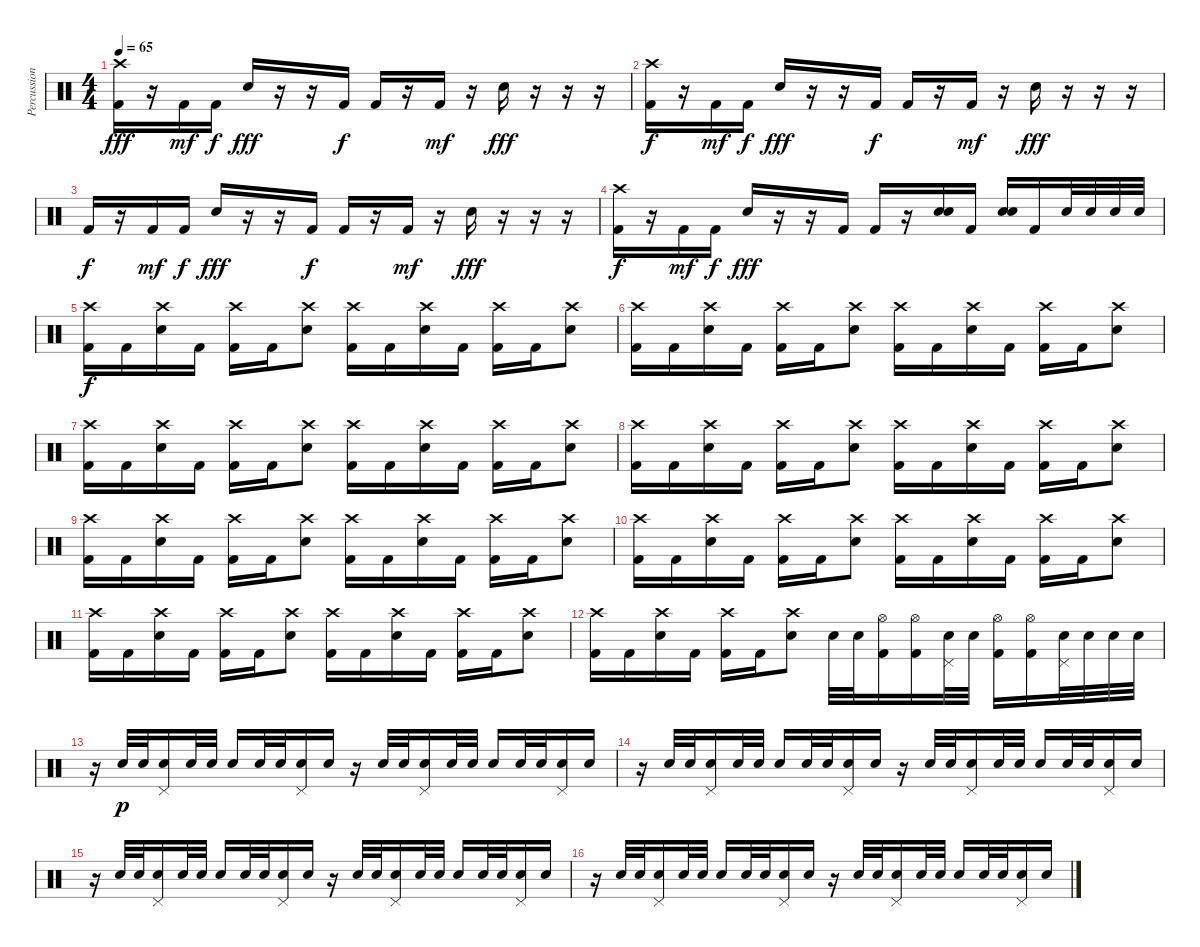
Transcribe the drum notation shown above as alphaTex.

\track ("Percussion" "Percussion") {instrument percussion}
\staff {score}
\articulation defaults
\ts (4 4)
\tempo 65
\clef neutral
\ks c
("Crash high (hit)" "Kick (hit) 2").16{dy fff} r.16 "Kick (hit) 2".16{dy mf} "Kick (hit) 2".16{dy f} "Snare (hit) 2".16{dy fff} r.16 r.16 "Kick (hit) 2".16{dy f} "Kick (hit) 2".16 r.16 "Kick (hit) 2".16{dy mf} r.16 "Snare (hit) 2".16{dy fff} r.16 r.16 r.16 |
("Crash high (hit)" "Kick (hit) 2").16{dy f} r.16 "Kick (hit) 2".16{dy mf} "Kick (hit) 2".16{dy f} "Snare (hit) 2".16{dy fff} r.16 r.16 "Kick (hit) 2".16{dy f} "Kick (hit) 2".16 r.16 "Kick (hit) 2".16{dy mf} r.16 "Snare (hit) 2".16{dy fff} r.16 r.16 r.16 |
"Kick (hit) 2".16{dy f} r.16 "Kick (hit) 2".16{dy mf} "Kick (hit) 2".16{dy f} "Snare (hit) 2".16{dy fff} r.16 r.16 "Kick (hit) 2".16{dy f} "Kick (hit) 2".16 r.16 "Kick (hit) 2".16{dy mf} r.16 "Snare (hit) 2".16{dy fff} r.16 r.16 r.16 |
("Crash high (hit)" "Kick (hit) 2").16{dy f} r.16 "Kick (hit) 2".16{dy mf} "Kick (hit) 2".16{dy f} "Snare (hit) 2".16{dy fff} r.16 r.16 "Kick (hit) 2".16 "Kick (hit) 2".16 r.16 ("Snare (hit) 2" "Snare (hit) 2").16{bd 240} "Kick (hit) 2".16 ("Snare (hit) 2" "Snare (hit) 2").16{bd 240} "Kick (hit) 2".16 "Snare (hit) 2".32 "Snare (hit) 2".32 "Snare (hit) 2".32 "Snare (hit) 2".32 |
("Crash high (hit)" "Kick (hit) 2").16{dy f volume 13} "Kick (hit) 2".16 ("Crash high (hit)" "Snare (hit) 2").16 "Kick (hit) 2".16 ("Crash high (hit)" "Kick (hit) 2").16 "Kick (hit) 2".16 ("Crash high (hit)" "Snare (hit) 2").8 ("Crash high (hit)" "Kick (hit) 2").16 "Kick (hit) 2".16 ("Crash high (hit)" "Snare (hit) 2").16 "Kick (hit) 2".16 ("Crash high (hit)" "Kick (hit) 2").16 "Kick (hit) 2".16 ("Crash high (hit)" "Snare (hit) 2").8 |
("Crash high (hit)" "Kick (hit) 2").16 "Kick (hit) 2".16 ("Crash high (hit)" "Snare (hit) 2").16 "Kick (hit) 2".16 ("Crash high (hit)" "Kick (hit) 2").16 "Kick (hit) 2".16 ("Crash high (hit)" "Snare (hit) 2").8 ("Crash high (hit)" "Kick (hit) 2").16 "Kick (hit) 2".16 ("Crash high (hit)" "Snare (hit) 2").16 "Kick (hit) 2".16 ("Crash high (hit)" "Kick (hit) 2").16 "Kick (hit) 2".16 ("Crash high (hit)" "Snare (hit) 2").8 |
("Crash high (hit)" "Kick (hit) 2").16 "Kick (hit) 2".16 ("Crash high (hit)" "Snare (hit) 2").16 "Kick (hit) 2".16 ("Crash high (hit)" "Kick (hit) 2").16 "Kick (hit) 2".16 ("Crash high (hit)" "Snare (hit) 2").8 ("Crash high (hit)" "Kick (hit) 2").16 "Kick (hit) 2".16 ("Crash high (hit)" "Snare (hit) 2").16 "Kick (hit) 2".16 ("Crash high (hit)" "Kick (hit) 2").16 "Kick (hit) 2".16 ("Crash high (hit)" "Snare (hit) 2").8 |
("Crash high (hit)" "Kick (hit) 2").16 "Kick (hit) 2".16 ("Crash high (hit)" "Snare (hit) 2").16 "Kick (hit) 2".16 ("Crash high (hit)" "Kick (hit) 2").16 "Kick (hit) 2".16 ("Crash high (hit)" "Snare (hit) 2").8 ("Crash high (hit)" "Kick (hit) 2").16 "Kick (hit) 2".16 ("Crash high (hit)" "Snare (hit) 2").16 "Kick (hit) 2".16 ("Crash high (hit)" "Kick (hit) 2").16 "Kick (hit) 2".16 ("Crash high (hit)" "Snare (hit) 2").8 |
("Crash high (hit)" "Kick (hit) 2").16 "Kick (hit) 2".16 ("Crash high (hit)" "Snare (hit) 2").16 "Kick (hit) 2".16 ("Crash high (hit)" "Kick (hit) 2").16 "Kick (hit) 2".16 ("Crash high (hit)" "Snare (hit) 2").8 ("Crash high (hit)" "Kick (hit) 2").16 "Kick (hit) 2".16 ("Crash high (hit)" "Snare (hit) 2").16 "Kick (hit) 2".16 ("Crash high (hit)" "Kick (hit) 2").16 "Kick (hit) 2".16 ("Crash high (hit)" "Snare (hit) 2").8 |
("Crash high (hit)" "Kick (hit) 2").16 "Kick (hit) 2".16 ("Crash high (hit)" "Snare (hit) 2").16 "Kick (hit) 2".16 ("Crash high (hit)" "Kick (hit) 2").16 "Kick (hit) 2".16 ("Crash high (hit)" "Snare (hit) 2").8 ("Crash high (hit)" "Kick (hit) 2").16 "Kick (hit) 2".16 ("Crash high (hit)" "Snare (hit) 2").16 "Kick (hit) 2".16 ("Crash high (hit)" "Kick (hit) 2").16 "Kick (hit) 2".16 ("Crash high (hit)" "Snare (hit) 2").8 |
("Crash high (hit)" "Kick (hit) 2").16 "Kick (hit) 2".16 ("Crash high (hit)" "Snare (hit) 2").16 "Kick (hit) 2".16 ("Crash high (hit)" "Kick (hit) 2").16 "Kick (hit) 2".16 ("Crash high (hit)" "Snare (hit) 2").8 ("Crash high (hit)" "Kick (hit) 2").16 "Kick (hit) 2".16 ("Crash high (hit)" "Snare (hit) 2").16 "Kick (hit) 2".16 ("Crash high (hit)" "Kick (hit) 2").16 "Kick (hit) 2".16 ("Crash high (hit)" "Snare (hit) 2").8 |
("Crash high (hit)" "Kick (hit) 2").16 "Kick (hit) 2".16 ("Crash high (hit)" "Snare (hit) 2").16 "Kick (hit) 2".16 ("Crash high (hit)" "Kick (hit) 2").16 "Kick (hit) 2".16 ("Crash high (hit)" "Snare (hit) 2").8 "Snare (hit) 2".32 "Snare (hit) 2".32 ("Hi-Hat (open)" "Kick (hit) 2").16 ("Hi-Hat (open)" "Kick (hit) 2").16 ("Pedal Hi-Hat (hit)" "Snare (hit) 2").32 "Snare (hit) 2".32 ("Hi-Hat (open)" "Kick (hit) 2").16 ("Hi-Hat (open)" "Kick (hit) 2").16 ("Pedal Hi-Hat (hit)" "Snare (hit) 2").32 "Snare (hit) 2".32 "Snare (hit) 2".32 "Snare (hit) 2".32 |
r.16 "Snare (hit) 2".32{dy p} "Snare (hit) 2".32 ("Pedal Hi-Hat (hit)" "Snare (hit) 2").16 "Snare (hit) 2".32 "Snare (hit) 2".32 "Snare (hit) 2".16 "Snare (hit) 2".32 "Snare (hit) 2".32 ("Pedal Hi-Hat (hit)" "Snare (hit) 2").16 "Snare (hit) 2".16 r.16 "Snare (hit) 2".32 "Snare (hit) 2".32 ("Pedal Hi-Hat (hit)" "Snare (hit) 2").16 "Snare (hit) 2".32 "Snare (hit) 2".32 "Snare (hit) 2".16 "Snare (hit) 2".32 "Snare (hit) 2".32 ("Pedal Hi-Hat (hit)" "Snare (hit) 2").16 "Snare (hit) 2".16 |
r.16 "Snare (hit) 2".32 "Snare (hit) 2".32 ("Pedal Hi-Hat (hit)" "Snare (hit) 2").16 "Snare (hit) 2".32 "Snare (hit) 2".32 "Snare (hit) 2".16 "Snare (hit) 2".32 "Snare (hit) 2".32 ("Pedal Hi-Hat (hit)" "Snare (hit) 2").16 "Snare (hit) 2".16 r.16 "Snare (hit) 2".32 "Snare (hit) 2".32 ("Pedal Hi-Hat (hit)" "Snare (hit) 2").16 "Snare (hit) 2".32 "Snare (hit) 2".32 "Snare (hit) 2".16 "Snare (hit) 2".32 "Snare (hit) 2".32 ("Pedal Hi-Hat (hit)" "Snare (hit) 2").16 "Snare (hit) 2".16 |
r.16 "Snare (hit) 2".32 "Snare (hit) 2".32 ("Pedal Hi-Hat (hit)" "Snare (hit) 2").16 "Snare (hit) 2".32 "Snare (hit) 2".32 "Snare (hit) 2".16 "Snare (hit) 2".32 "Snare (hit) 2".32 ("Pedal Hi-Hat (hit)" "Snare (hit) 2").16 "Snare (hit) 2".16 r.16 "Snare (hit) 2".32 "Snare (hit) 2".32 ("Pedal Hi-Hat (hit)" "Snare (hit) 2").16 "Snare (hit) 2".32 "Snare (hit) 2".32 "Snare (hit) 2".16 "Snare (hit) 2".32 "Snare (hit) 2".32 ("Pedal Hi-Hat (hit)" "Snare (hit) 2").16 "Snare (hit) 2".16 |
r.16 "Snare (hit) 2".32 "Snare (hit) 2".32 ("Pedal Hi-Hat (hit)" "Snare (hit) 2").16 "Snare (hit) 2".32 "Snare (hit) 2".32 "Snare (hit) 2".16 "Snare (hit) 2".32 "Snare (hit) 2".32 ("Pedal Hi-Hat (hit)" "Snare (hit) 2").16 "Snare (hit) 2".16 r.16 "Snare (hit) 2".32 "Snare (hit) 2".32 ("Pedal Hi-Hat (hit)" "Snare (hit) 2").16 "Snare (hit) 2".32 "Snare (hit) 2".32 "Snare (hit) 2".16 "Snare (hit) 2".32 "Snare (hit) 2".32 ("Pedal Hi-Hat (hit)" "Snare (hit) 2").16 "Snare (hit) 2".16
